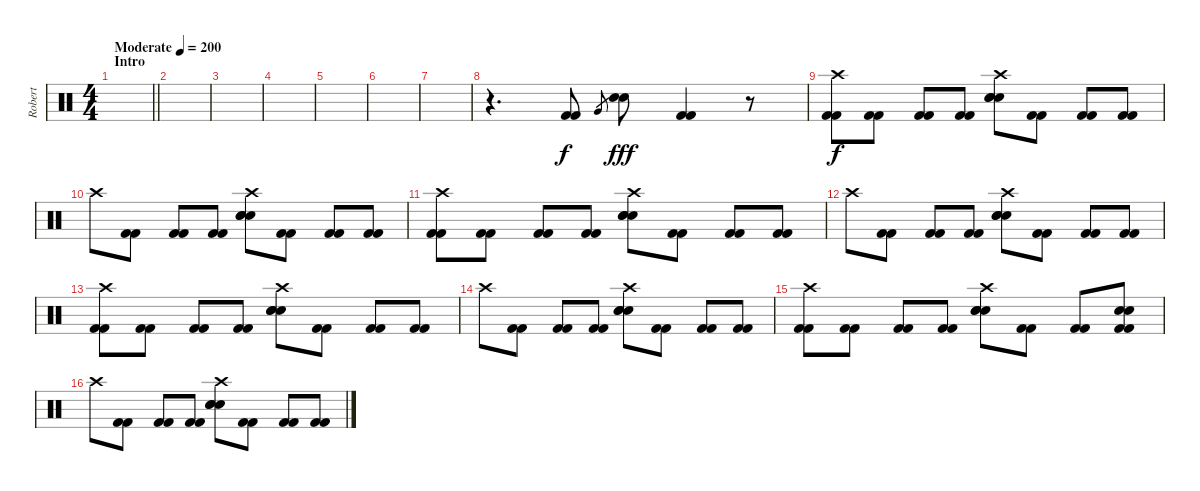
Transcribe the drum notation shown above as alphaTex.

\track ("Robert" "Robert") {instrument percussion}
\staff {score}
\articulation defaults
\ts (4 4)
\section ("" "Intro")
\tempo (200 "Moderate")
\clef neutral
\barLineRight lightlight
\ks c
|
\section ("" "")
|
|
|
|
|
|
r.4{d} ("Kick (hit) 2" "Kick (hit) 2").8 "Very Low Tom (hit)".8{gr dy f} ("Electric Snare (hit)" "Electric Snare (hit)").8{dy fff} ("Kick (hit) 2" "Kick (hit) 2").4 r.8 |
("Crash high (hit)" "Kick (hit) 2" "Kick (hit) 2").8{dy f} ("Kick (hit) 2" "Kick (hit) 2").8 ("Kick (hit) 2" "Kick (hit) 2").8 ("Kick (hit) 2" "Kick (hit) 2").8 ("Crash high (hit)" "Electric Snare (hit)" "Electric Snare (hit)" "Electric Snare (hit)").8 ("Kick (hit) 2" "Kick (hit) 2").8 ("Kick (hit) 2" "Kick (hit) 2").8 ("Kick (hit) 2" "Kick (hit) 2").8 |
"Crash high (hit)".8 ("Kick (hit) 2" "Kick (hit) 2").8 ("Kick (hit) 2" "Kick (hit) 2").8 ("Kick (hit) 2" "Kick (hit) 2").8 ("Crash high (hit)" "Electric Snare (hit)" "Electric Snare (hit)" "Electric Snare (hit)").8 ("Kick (hit) 2" "Kick (hit) 2").8 ("Kick (hit) 2" "Kick (hit) 2").8 ("Kick (hit) 2" "Kick (hit) 2").8 |
("Crash high (hit)" "Kick (hit) 2" "Kick (hit) 2").8 ("Kick (hit) 2" "Kick (hit) 2").8 ("Kick (hit) 2" "Kick (hit) 2").8 ("Kick (hit) 2" "Kick (hit) 2").8 ("Crash high (hit)" "Electric Snare (hit)" "Electric Snare (hit)" "Electric Snare (hit)").8 ("Kick (hit) 2" "Kick (hit) 2").8 ("Kick (hit) 2" "Kick (hit) 2").8 ("Kick (hit) 2" "Kick (hit) 2").8 |
"Crash high (hit)".8 ("Kick (hit) 2" "Kick (hit) 2").8 ("Kick (hit) 2" "Kick (hit) 2").8 ("Kick (hit) 2" "Kick (hit) 2").8 ("Crash high (hit)" "Electric Snare (hit)" "Electric Snare (hit)" "Electric Snare (hit)").8 ("Kick (hit) 2" "Kick (hit) 2").8 ("Kick (hit) 2" "Kick (hit) 2").8 ("Kick (hit) 2" "Kick (hit) 2").8 |
("Crash high (hit)" "Kick (hit) 2" "Kick (hit) 2").8 ("Kick (hit) 2" "Kick (hit) 2").8 ("Kick (hit) 2" "Kick (hit) 2").8 ("Kick (hit) 2" "Kick (hit) 2").8 ("Crash high (hit)" "Electric Snare (hit)" "Electric Snare (hit)" "Electric Snare (hit)").8 ("Kick (hit) 2" "Kick (hit) 2").8 ("Kick (hit) 2" "Kick (hit) 2").8 ("Kick (hit) 2" "Kick (hit) 2").8 |
"Crash high (hit)".8 ("Kick (hit) 2" "Kick (hit) 2").8 ("Kick (hit) 2" "Kick (hit) 2").8 ("Kick (hit) 2" "Kick (hit) 2").8 ("Crash high (hit)" "Electric Snare (hit)" "Electric Snare (hit)" "Electric Snare (hit)").8 ("Kick (hit) 2" "Kick (hit) 2").8 ("Kick (hit) 2" "Kick (hit) 2").8 ("Kick (hit) 2" "Kick (hit) 2").8 |
("Crash high (hit)" "Kick (hit) 2" "Kick (hit) 2").8 ("Kick (hit) 2" "Kick (hit) 2").8 ("Kick (hit) 2" "Kick (hit) 2").8 ("Kick (hit) 2" "Kick (hit) 2").8 ("Crash high (hit)" "Electric Snare (hit)" "Electric Snare (hit)" "Electric Snare (hit)").8 ("Kick (hit) 2" "Kick (hit) 2").8 ("Kick (hit) 2" "Kick (hit) 2").8 ("Electric Snare (hit)" "Electric Snare (hit)" "Kick (hit) 2" "Kick (hit) 2").8 |
"Crash high (hit)".8 ("Kick (hit) 2" "Kick (hit) 2").8 ("Kick (hit) 2" "Kick (hit) 2").8 ("Kick (hit) 2" "Kick (hit) 2").8 ("Crash high (hit)" "Electric Snare (hit)" "Electric Snare (hit)" "Electric Snare (hit)").8 ("Kick (hit) 2" "Kick (hit) 2").8 ("Kick (hit) 2" "Kick (hit) 2").8 ("Kick (hit) 2" "Kick (hit) 2").8
